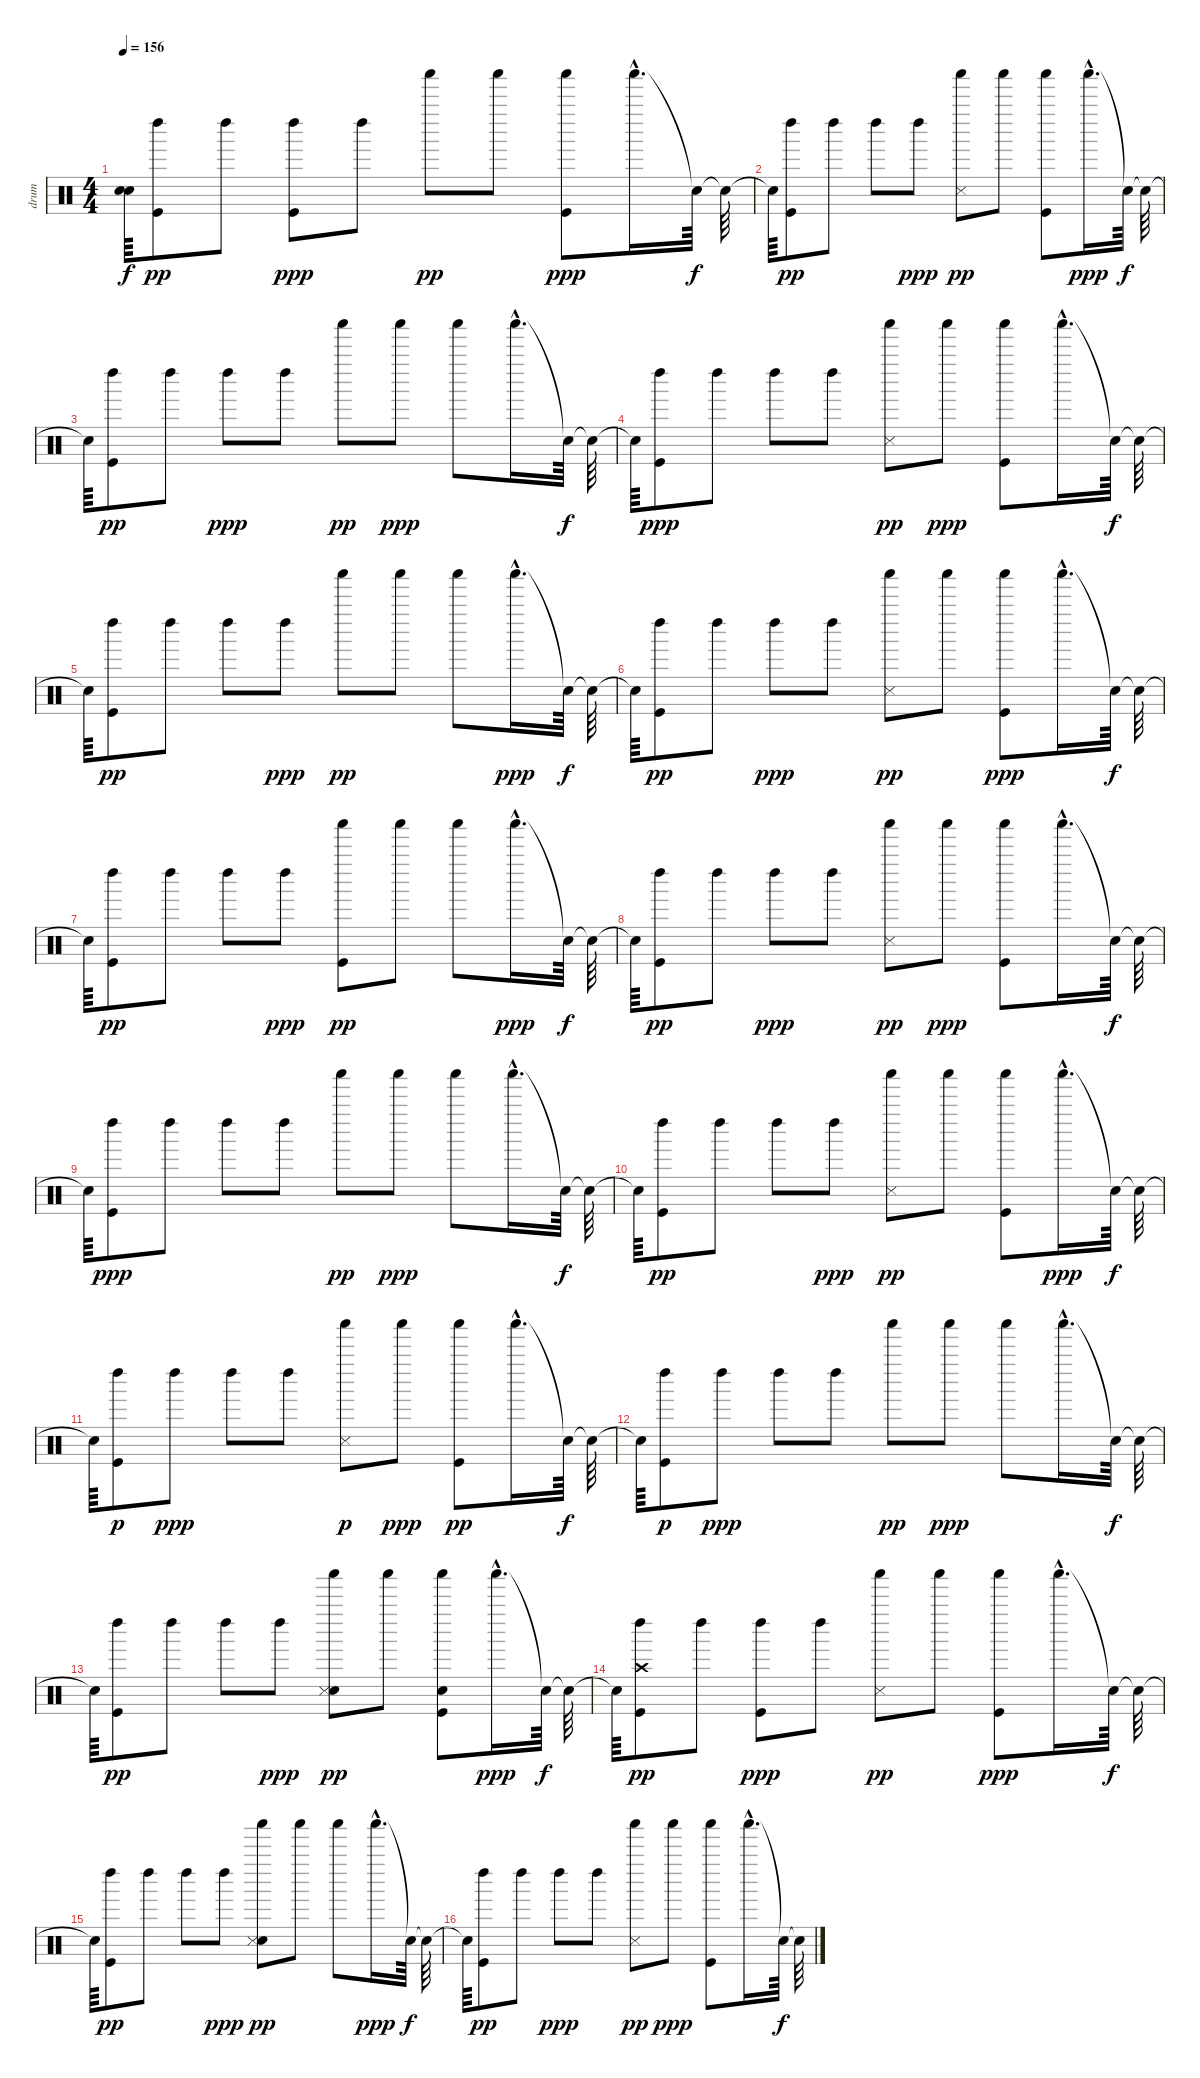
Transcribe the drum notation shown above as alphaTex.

\track ("drum" "drum") {instrument percussion}
\staff {score}
\articulation defaults
\ts (4 4)
\tempo 156
\clef neutral
\ks c
("Snare (hit)"{t} "Snare (hit)"{t}).64{dy f} ("Kick (hit)" "Left Maraca (hit)").8{dy pp} "Left Maraca (hit)".8 ("Kick (hit)" "Left Maraca (hit)").8{dy ppp} "Left Maraca (hit)".8 "Shaker (hit)".8{dy pp} "Shaker (hit)".8 ("Kick (hit)" "Shaker (hit)").8{dy ppp} "Shaker (hit)"{hac}.16{d} "Snare (hit)"{t}.64{dy f} "Snare (hit)"{t}.64 |
"Snare (hit)"{t}.64 ("Kick (hit)" "Left Maraca (hit)").8{dy pp} "Left Maraca (hit)".8 "Left Maraca (hit)".8 "Left Maraca (hit)".8{dy ppp} ("Snare (side stick) 3" "Shaker (hit)").8{dy pp} "Shaker (hit)".8 ("Kick (hit)" "Shaker (hit)").8 "Shaker (hit)"{hac}.16{d dy ppp} "Snare (hit)"{t}.64{dy f} "Snare (hit)"{t}.64 |
"Snare (hit)"{t}.64 ("Kick (hit)" "Left Maraca (hit)").8{dy pp} "Left Maraca (hit)".8 "Left Maraca (hit)".8{dy ppp} "Left Maraca (hit)".8 "Shaker (hit)".8{dy pp} "Shaker (hit)".8{dy ppp} "Shaker (hit)".8 "Shaker (hit)"{hac}.16{d} "Snare (hit)"{t}.64{dy f} "Snare (hit)"{t}.64 |
"Snare (hit)"{t}.64 ("Left Maraca (hit)" "Kick (hit)").8{dy ppp} "Left Maraca (hit)".8 "Left Maraca (hit)".8 "Left Maraca (hit)".8 ("Shaker (hit)" "Snare (side stick) 3").8{dy pp} "Shaker (hit)".8{dy ppp} ("Shaker (hit)" "Kick (hit)").8 "Shaker (hit)"{hac}.16{d} "Snare (hit)"{t}.64{dy f} "Snare (hit)"{t}.64 |
"Snare (hit)"{t}.64 ("Kick (hit)" "Left Maraca (hit)").8{dy pp} "Left Maraca (hit)".8 "Left Maraca (hit)".8 "Left Maraca (hit)".8{dy ppp} "Shaker (hit)".8{dy pp} "Shaker (hit)".8 "Shaker (hit)".8 "Shaker (hit)"{hac}.16{d dy ppp} "Snare (hit)"{t}.64{dy f} "Snare (hit)"{t}.64 |
"Snare (hit)"{t}.64 ("Left Maraca (hit)" "Kick (hit)").8{dy pp} "Left Maraca (hit)".8 "Left Maraca (hit)".8{dy ppp} "Left Maraca (hit)".8 ("Shaker (hit)" "Snare (side stick) 3").8{dy pp} "Shaker (hit)".8 ("Shaker (hit)" "Kick (hit)").8{dy ppp} "Shaker (hit)"{hac}.16{d} "Snare (hit)"{t}.64{dy f} "Snare (hit)"{t}.64 |
"Snare (hit)"{t}.64 ("Kick (hit)" "Left Maraca (hit)").8{dy pp} "Left Maraca (hit)".8 "Left Maraca (hit)".8 "Left Maraca (hit)".8{dy ppp} ("Shaker (hit)" "Kick (hit)").8{dy pp} "Shaker (hit)".8 "Shaker (hit)".8 "Shaker (hit)"{hac}.16{d dy ppp} "Snare (hit)"{t}.64{dy f} "Snare (hit)"{t}.64 |
"Snare (hit)"{t}.64 ("Left Maraca (hit)" "Kick (hit)").8{dy pp} "Left Maraca (hit)".8 "Left Maraca (hit)".8{dy ppp} "Left Maraca (hit)".8 ("Shaker (hit)" "Snare (side stick) 3").8{dy pp} "Shaker (hit)".8{dy ppp} ("Shaker (hit)" "Kick (hit)").8 "Shaker (hit)"{hac}.16{d} "Snare (hit)"{t}.64{dy f} "Snare (hit)"{t}.64 |
"Snare (hit)"{t}.64 ("Kick (hit)" "Left Maraca (hit)").8{dy ppp} "Left Maraca (hit)".8 "Left Maraca (hit)".8 "Left Maraca (hit)".8 "Shaker (hit)".8{dy pp} "Shaker (hit)".8{dy ppp} "Shaker (hit)".8 "Shaker (hit)"{hac}.16{d} "Snare (hit)"{t}.64{dy f} "Snare (hit)"{t}.64 |
"Snare (hit)"{t}.64 ("Kick (hit)" "Left Maraca (hit)").8{dy pp} "Left Maraca (hit)".8 "Left Maraca (hit)".8 "Left Maraca (hit)".8{dy ppp} ("Snare (side stick) 3" "Shaker (hit)").8{dy pp} "Shaker (hit)".8 ("Kick (hit)" "Shaker (hit)").8 "Shaker (hit)"{hac}.16{d dy ppp} "Snare (hit)"{t}.64{dy f} "Snare (hit)"{t}.64 |
"Snare (hit)"{t}.64 ("Kick (hit)" "Left Maraca (hit)").8{dy p} "Left Maraca (hit)".8{dy ppp} "Left Maraca (hit)".8 "Left Maraca (hit)".8 ("Snare (side stick) 3" "Shaker (hit)").8{dy p} "Shaker (hit)".8{dy ppp} ("Shaker (hit)" "Kick (hit)").8{dy pp} "Shaker (hit)"{hac}.16{d} "Snare (hit)"{t}.64{dy f} "Snare (hit)"{t}.64 |
"Snare (hit)"{t}.64 ("Kick (hit)" "Left Maraca (hit)").8{dy p} "Left Maraca (hit)".8{dy ppp} "Left Maraca (hit)".8 "Left Maraca (hit)".8 "Shaker (hit)".8{dy pp} "Shaker (hit)".8{dy ppp} "Shaker (hit)".8 "Shaker (hit)"{hac}.16{d} "Snare (hit)"{t}.64{dy f} "Snare (hit)"{t}.64 |
"Snare (hit)"{t}.64 ("Kick (hit)" "Left Maraca (hit)").8{dy pp} "Left Maraca (hit)".8 "Left Maraca (hit)".8 "Left Maraca (hit)".8{dy ppp} ("Snare (hit) 2" "Snare (side stick) 3" "Shaker (hit)").8{dy pp} "Shaker (hit)".8 ("Snare (hit) 2" "Kick (hit)" "Shaker (hit)").8 "Shaker (hit)"{hac}.16{d dy ppp} "Snare (hit)"{t}.64{dy f} "Snare (hit)"{t}.64 |
"Snare (hit)"{t}.64 ("Crash high (hit)" "Kick (hit)" "Left Maraca (hit)").8{dy pp} "Left Maraca (hit)".8 ("Kick (hit)" "Left Maraca (hit)").8{dy ppp} "Left Maraca (hit)".8 ("Snare (side stick) 3" "Shaker (hit)").8{dy pp} "Shaker (hit)".8 ("Kick (hit)" "Shaker (hit)").8{dy ppp} "Shaker (hit)"{hac}.16{d} "Snare (hit)"{t}.64{dy f} "Snare (hit)"{t}.64 |
"Snare (hit)"{t}.64 ("Kick (hit)" "Left Maraca (hit)").8{dy pp} "Left Maraca (hit)".8 "Left Maraca (hit)".8 "Left Maraca (hit)".8{dy ppp} ("Snare (hit) 2" "Snare (side stick) 3" "Shaker (hit)").8{dy pp} "Shaker (hit)".8 "Shaker (hit)".8 "Shaker (hit)"{hac}.16{d dy ppp} "Snare (hit)"{t}.64{dy f} "Snare (hit)"{t}.64 |
"Snare (hit)"{t}.64 ("Kick (hit)" "Left Maraca (hit)").8{dy pp} "Left Maraca (hit)".8 "Left Maraca (hit)".8{dy ppp} "Left Maraca (hit)".8 ("Snare (side stick) 3" "Shaker (hit)").8{dy pp} "Shaker (hit)".8{dy ppp} ("Kick (hit)" "Shaker (hit)").8 "Shaker (hit)"{hac}.16{d} "Snare (hit)"{t}.64{dy f} "Snare (hit)"{t}.64
